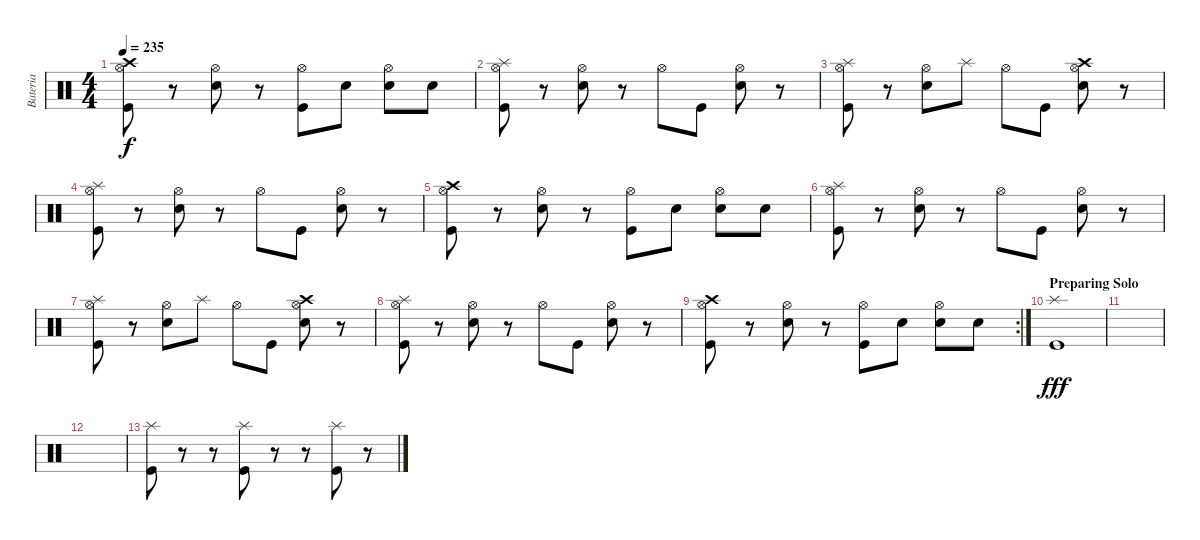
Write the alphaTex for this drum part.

\track ("Bateria" "Bateria") {instrument percussion}
\staff {score}
\articulation defaults
\ts (4 4)
\tempo 235
\clef neutral
\ks c
("Kick (hit)" "Hi-Hat (open)" "Crash high (hit)").8{dy f} r.8 ("Electric Snare (hit)" "Hi-Hat (open)").8 r.8 ("Kick (hit)" "Hi-Hat (open)").8 "Electric Snare (hit)".8 ("Electric Snare (hit)" "Hi-Hat (open)").8 "Electric Snare (hit)".8 |
("Kick (hit)" "Hi-Hat (open)" "Splash (hit)").8 r.8 ("Electric Snare (hit)" "Hi-Hat (open)").8 r.8 "Hi-Hat (open)".8 "Kick (hit)".8 ("Electric Snare (hit)" "Hi-Hat (open)").8 r.8 |
("Kick (hit)" "Hi-Hat (open)" "Splash (hit)").8 r.8 ("Electric Snare (hit)" "Hi-Hat (open)").8 "Splash (hit)".8 "Hi-Hat (open)".8 "Kick (hit)".8 ("Electric Snare (hit)" "Hi-Hat (open)" "Crash high (hit)").8 r.8 |
("Kick (hit)" "Hi-Hat (open)" "Splash (hit)").8 r.8 ("Electric Snare (hit)" "Hi-Hat (open)").8 r.8 "Hi-Hat (open)".8 "Kick (hit)".8 ("Electric Snare (hit)" "Hi-Hat (open)").8 r.8 |
("Kick (hit)" "Hi-Hat (open)" "Crash high (hit)").8 r.8 ("Electric Snare (hit)" "Hi-Hat (open)").8 r.8 ("Kick (hit)" "Hi-Hat (open)").8 "Electric Snare (hit)".8 ("Electric Snare (hit)" "Hi-Hat (open)").8 "Electric Snare (hit)".8 |
("Kick (hit)" "Hi-Hat (open)" "Splash (hit)").8 r.8 ("Electric Snare (hit)" "Hi-Hat (open)").8 r.8 "Hi-Hat (open)".8 "Kick (hit)".8 ("Electric Snare (hit)" "Hi-Hat (open)").8 r.8 |
("Kick (hit)" "Hi-Hat (open)" "Splash (hit)").8 r.8 ("Electric Snare (hit)" "Hi-Hat (open)").8 "Splash (hit)".8 "Hi-Hat (open)".8 "Kick (hit)".8 ("Electric Snare (hit)" "Hi-Hat (open)" "Crash high (hit)").8 r.8 |
("Kick (hit)" "Hi-Hat (open)" "Splash (hit)").8 r.8 ("Electric Snare (hit)" "Hi-Hat (open)").8 r.8 "Hi-Hat (open)".8 "Kick (hit)".8 ("Electric Snare (hit)" "Hi-Hat (open)").8 r.8 |
\rc 2
("Kick (hit)" "Hi-Hat (open)" "Crash high (hit)").8 r.8 ("Electric Snare (hit)" "Hi-Hat (open)").8 r.8 ("Kick (hit)" "Hi-Hat (open)").8 "Electric Snare (hit)".8 ("Electric Snare (hit)" "Hi-Hat (open)").8 "Electric Snare (hit)".8 |
\section ("" "Preparing Solo")
("Kick (hit)" "Splash (hit)").1{dy fff} |
|
|
("Kick (hit)" "Splash (hit)").8 r.8 r.8 ("Kick (hit)" "Splash (hit)").8 r.8 r.8 ("Kick (hit)" "Splash (hit)").8 r.8
